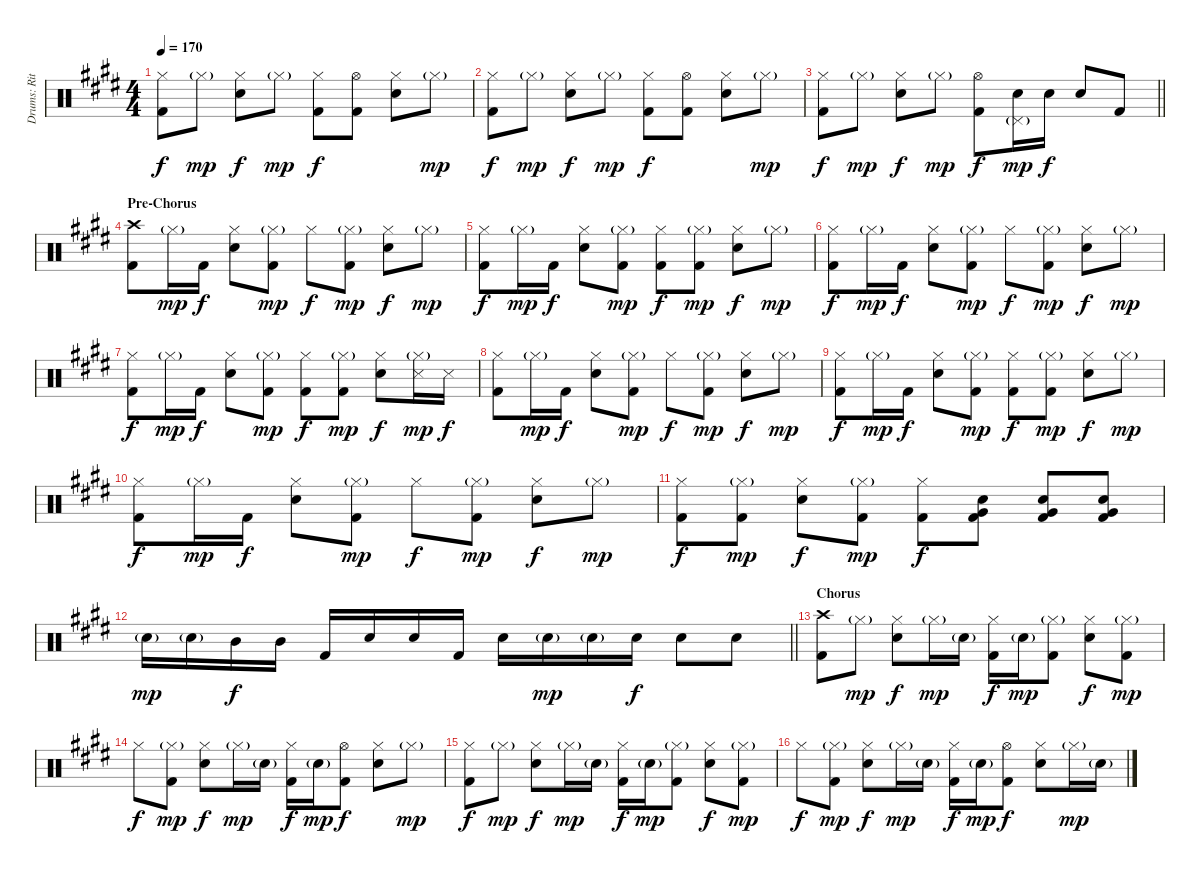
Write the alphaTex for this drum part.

\track ("Drums: Ritsu Tainaka" "Drums: Rit") {instrument percussion}
\staff {score}
\articulation defaults
\ts (4 4)
\tempo 170
\clef neutral
\ks e
("Hi-Hat (closed)" "Kick (hit) 2").8{dy f} "Hi-Hat (closed)"{g}.8{dy mp} ("Hi-Hat (closed)" "Electric Snare (hit)").8{dy f} "Hi-Hat (closed)"{g}.8{dy mp} ("Hi-Hat (closed)" "Kick (hit) 2").8{dy f} ("Hi-Hat (open)" "Kick (hit) 2").8 ("Hi-Hat (closed)" "Electric Snare (hit)").8 "Hi-Hat (closed)"{g}.8{dy mp} |
("Hi-Hat (closed)" "Kick (hit) 2").8{dy f} "Hi-Hat (closed)"{g}.8{dy mp} ("Hi-Hat (closed)" "Electric Snare (hit)").8{dy f} "Hi-Hat (closed)"{g}.8{dy mp} ("Hi-Hat (closed)" "Kick (hit) 2").8{dy f} ("Hi-Hat (open)" "Kick (hit) 2").8 ("Hi-Hat (closed)" "Electric Snare (hit)").8 "Hi-Hat (closed)"{g}.8{dy mp} |
\barLineRight lightlight
("Hi-Hat (closed)" "Kick (hit) 2").8{dy f} "Hi-Hat (closed)"{g}.8{dy mp} ("Hi-Hat (closed)" "Electric Snare (hit)").8{dy f} "Hi-Hat (closed)"{g}.8{dy mp} ("Hi-Hat (open)" "Kick (hit) 2").8{dy f} ("Pedal Hi-Hat (hit)"{g} "Electric Snare (hit)").16{dy mp} "Electric Snare (hit)".16{dy f} "Electric Snare (hit)".8 "Kick (hit) 2".8 |
\section ("" "Pre-Chorus")
("Crash high (hit)" "Kick (hit) 2").8 "Hi-Hat (closed)"{g}.16{dy mp} "Kick (hit) 2".16{dy f} ("Hi-Hat (closed)" "Electric Snare (hit)").8 ("Hi-Hat (closed)"{g} "Kick (hit) 2").8{dy mp} "Hi-Hat (closed)".8{dy f} ("Hi-Hat (closed)"{g} "Kick (hit) 2").8{dy mp} ("Hi-Hat (closed)" "Electric Snare (hit)").8{dy f} "Hi-Hat (closed)"{g}.8{dy mp} |
("Hi-Hat (closed)" "Kick (hit) 2").8{dy f} "Hi-Hat (closed)"{g}.16{dy mp} "Kick (hit) 2".16{dy f} ("Hi-Hat (closed)" "Electric Snare (hit)").8 ("Hi-Hat (closed)"{g} "Kick (hit) 2").8{dy mp} ("Hi-Hat (closed)" "Kick (hit) 2").8{dy f} ("Hi-Hat (closed)"{g} "Kick (hit) 2").8{dy mp} ("Hi-Hat (closed)" "Electric Snare (hit)").8{dy f} "Hi-Hat (closed)"{g}.8{dy mp} |
("Hi-Hat (closed)" "Kick (hit) 2").8{dy f} "Hi-Hat (closed)"{g}.16{dy mp} "Kick (hit) 2".16{dy f} ("Hi-Hat (closed)" "Electric Snare (hit)").8 ("Hi-Hat (closed)"{g} "Kick (hit) 2").8{dy mp} "Hi-Hat (closed)".8{dy f} ("Hi-Hat (closed)"{g} "Kick (hit) 2").8{dy mp} ("Hi-Hat (closed)" "Electric Snare (hit)").8{dy f} "Hi-Hat (closed)"{g}.8{dy mp} |
("Hi-Hat (closed)" "Kick (hit) 2").8{dy f} "Hi-Hat (closed)"{g}.16{dy mp} "Kick (hit) 2".16{dy f} ("Hi-Hat (closed)" "Electric Snare (hit)").8 ("Hi-Hat (closed)"{g} "Kick (hit) 2").8{dy mp} ("Hi-Hat (closed)" "Kick (hit) 2").8{dy f} ("Hi-Hat (closed)"{g} "Kick (hit) 2").8{dy mp} ("Hi-Hat (closed)" "Electric Snare (hit)").8{dy f} ("Hi-Hat (closed)"{g} "Snare (side stick) 3").16{dy mp} "Snare (side stick) 3".16{dy f} |
("Hi-Hat (closed)" "Kick (hit) 2").8 "Hi-Hat (closed)"{g}.16{dy mp} "Kick (hit) 2".16{dy f} ("Hi-Hat (closed)" "Electric Snare (hit)").8 ("Hi-Hat (closed)"{g} "Kick (hit) 2").8{dy mp} "Hi-Hat (closed)".8{dy f} ("Hi-Hat (closed)"{g} "Kick (hit) 2").8{dy mp} ("Hi-Hat (closed)" "Electric Snare (hit)").8{dy f} "Hi-Hat (closed)"{g}.8{dy mp} |
("Hi-Hat (closed)" "Kick (hit) 2").8{dy f} "Hi-Hat (closed)"{g}.16{dy mp} "Kick (hit) 2".16{dy f} ("Hi-Hat (closed)" "Electric Snare (hit)").8 ("Hi-Hat (closed)"{g} "Kick (hit) 2").8{dy mp} ("Hi-Hat (closed)" "Kick (hit) 2").8{dy f} ("Hi-Hat (closed)"{g} "Kick (hit) 2").8{dy mp} ("Hi-Hat (closed)" "Electric Snare (hit)").8{dy f} "Hi-Hat (closed)"{g}.8{dy mp} |
("Hi-Hat (closed)" "Kick (hit) 2").8{dy f} "Hi-Hat (closed)"{g}.16{dy mp} "Kick (hit) 2".16{dy f} ("Hi-Hat (closed)" "Electric Snare (hit)").8 ("Hi-Hat (closed)"{g} "Kick (hit) 2").8{dy mp} "Hi-Hat (closed)".8{dy f} ("Hi-Hat (closed)"{g} "Kick (hit) 2").8{dy mp} ("Hi-Hat (closed)" "Electric Snare (hit)").8{dy f} "Hi-Hat (closed)"{g}.8{dy mp} |
("Hi-Hat (closed)" "Kick (hit) 2").8{dy f} ("Hi-Hat (closed)"{g} "Kick (hit) 2").8{dy mp} ("Hi-Hat (closed)" "Electric Snare (hit)").8{dy f} ("Hi-Hat (closed)"{g} "Kick (hit) 2").8{dy mp} ("Hi-Hat (closed)" "Kick (hit) 2").8{dy f} ("Electric Snare (hit)" "Very Low Tom (hit)" "Kick (hit) 2").8 ("Electric Snare (hit)" "Very Low Tom (hit)" "Kick (hit) 2").8 ("Electric Snare (hit)" "Very Low Tom (hit)" "Kick (hit) 2").8 |
\barLineRight lightlight "Electric Snare (hit)"{g}.16{dy mp} "Electric Snare (hit)"{g}.16 "Mid Tom (hit)".16{dy f} "Mid Tom (hit)".16 "Kick (hit) 2".16 "Electric Snare (hit)".16 "Electric Snare (hit)".16 "Kick (hit) 2".16 "Electric Snare (hit)".16 "Electric Snare (hit)"{g}.16{dy mp} "Electric Snare (hit)"{g}.16 "Electric Snare (hit)".16{dy f} "Electric Snare (hit)".8 "Electric Snare (hit)".8
|
\section ("" "Chorus")
("Crash high (hit)" "Kick (hit) 2").8 "Hi-Hat (closed)"{g}.8{dy mp} ("Hi-Hat (closed)" "Electric Snare (hit)").8{dy f} "Hi-Hat (closed)"{g}.16{dy mp} "Electric Snare (hit)"{g}.16 ("Hi-Hat (closed)" "Kick (hit) 2").16{dy f} "Electric Snare (hit)"{g}.16{dy mp} ("Hi-Hat (closed)"{g} "Kick (hit) 2").8 ("Hi-Hat (closed)" "Electric Snare (hit)").8{dy f} ("Hi-Hat (closed)"{g} "Kick (hit) 2").8{dy mp} |
"Hi-Hat (closed)".8{dy f} ("Hi-Hat (closed)"{g} "Kick (hit) 2").8{dy mp} ("Hi-Hat (closed)" "Electric Snare (hit)").8{dy f} "Hi-Hat (closed)"{g}.16{dy mp} "Electric Snare (hit)"{g}.16 ("Hi-Hat (closed)" "Kick (hit) 2").16{dy f} "Electric Snare (hit)"{g}.16{dy mp} ("Hi-Hat (open)" "Kick (hit) 2").8{dy f} ("Hi-Hat (closed)" "Electric Snare (hit)").8 "Hi-Hat (closed)"{g}.8{dy mp} |
("Hi-Hat (closed)" "Kick (hit) 2").8{dy f} "Hi-Hat (closed)"{g}.8{dy mp} ("Hi-Hat (closed)" "Electric Snare (hit)").8{dy f} "Hi-Hat (closed)"{g}.16{dy mp} "Electric Snare (hit)"{g}.16 ("Hi-Hat (closed)" "Kick (hit) 2").16{dy f} "Electric Snare (hit)"{g}.16{dy mp} ("Hi-Hat (closed)"{g} "Kick (hit) 2").8 ("Hi-Hat (closed)" "Electric Snare (hit)").8{dy f} ("Hi-Hat (closed)"{g} "Kick (hit) 2").8{dy mp} |
"Hi-Hat (closed)".8{dy f} ("Hi-Hat (closed)"{g} "Kick (hit) 2").8{dy mp} ("Hi-Hat (closed)" "Electric Snare (hit)").8{dy f} "Hi-Hat (closed)"{g}.16{dy mp} "Electric Snare (hit)"{g}.16 ("Hi-Hat (closed)" "Kick (hit) 2").16{dy f} "Electric Snare (hit)"{g}.16{dy mp} ("Hi-Hat (open)" "Kick (hit) 2").8{dy f} ("Hi-Hat (closed)" "Electric Snare (hit)").8 "Hi-Hat (closed)"{g}.16{dy mp} "Electric Snare (hit)"{g}.16
